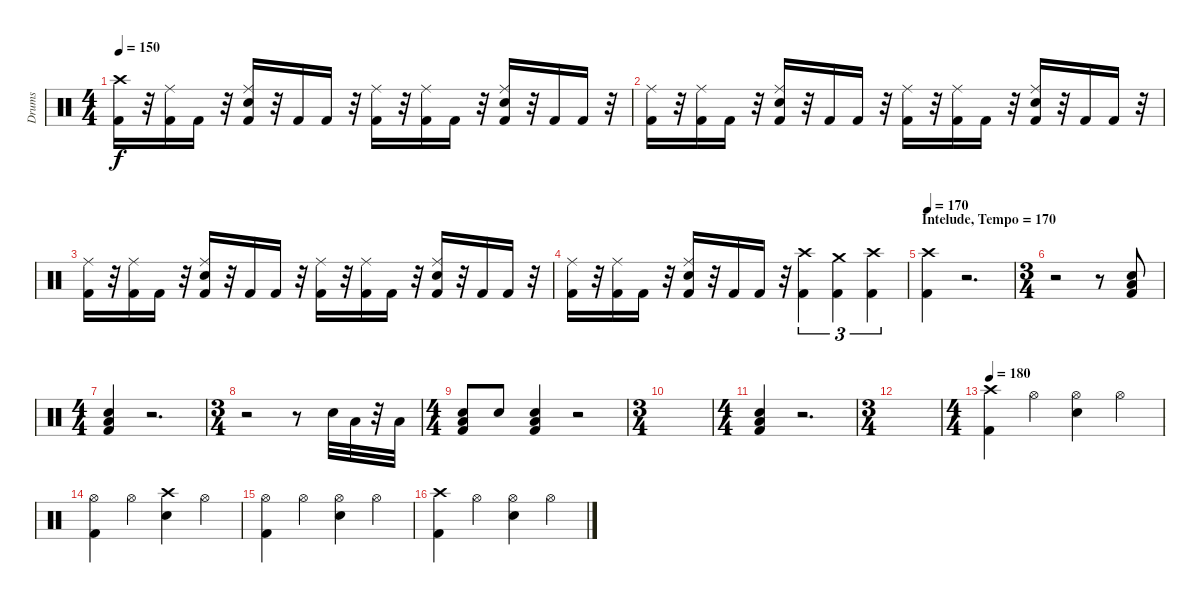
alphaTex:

\track ("Drums" "Drums") {instrument percussion}
\staff {score}
\articulation defaults
\ts (4 4)
\tempo 150
\clef neutral
\ks c
("Crash high (hit)" "Kick (hit) 2").16{dy f} r.32 ("Ride (middle)" "Kick (hit) 2").16 "Kick (hit) 2".16 r.32 ("Ride (middle)" "Electric Snare (hit)" "Kick (hit) 2").16 r.32 "Kick (hit) 2".16 "Kick (hit) 2".16 r.32 ("Ride (middle)" "Kick (hit) 2").16 r.32 ("Ride (middle)" "Kick (hit) 2").16 "Kick (hit) 2".16 r.32 ("Ride (middle)" "Electric Snare (hit)" "Kick (hit) 2").16 r.32 "Kick (hit) 2".16 "Kick (hit) 2".16 r.32 |
("Ride (middle)" "Kick (hit) 2").16 r.32 ("Ride (middle)" "Kick (hit) 2").16 "Kick (hit) 2".16 r.32 ("Ride (middle)" "Electric Snare (hit)" "Kick (hit) 2").16 r.32 "Kick (hit) 2".16 "Kick (hit) 2".16 r.32 ("Ride (middle)" "Kick (hit) 2").16 r.32 ("Ride (middle)" "Kick (hit) 2").16 "Kick (hit) 2".16 r.32 ("Ride (middle)" "Electric Snare (hit)" "Kick (hit) 2").16 r.32 "Kick (hit) 2".16 "Kick (hit) 2".16 r.32 |
("Ride (middle)" "Kick (hit) 2").16 r.32 ("Ride (middle)" "Kick (hit) 2").16 "Kick (hit) 2".16 r.32 ("Ride (middle)" "Electric Snare (hit)" "Kick (hit) 2").16 r.32 "Kick (hit) 2".16 "Kick (hit) 2".16 r.32 ("Ride (middle)" "Kick (hit) 2").16 r.32 ("Ride (middle)" "Kick (hit) 2").16 "Kick (hit) 2".16 r.32 ("Ride (middle)" "Electric Snare (hit)" "Kick (hit) 2").16 r.32 "Kick (hit) 2".16 "Kick (hit) 2".16 r.32 |
("Ride (middle)" "Kick (hit) 2").16 r.32 ("Ride (middle)" "Kick (hit) 2").16 "Kick (hit) 2".16 r.32 ("Ride (middle)" "Electric Snare (hit)" "Kick (hit) 2").16 r.32 "Kick (hit) 2".16 "Kick (hit) 2".16 r.32 ("Crash high (hit)" "Kick (hit) 2").4{tu (3 2)} ("Crash medium (hit)" "Kick (hit) 2").4{tu (3 2)} ("Crash high (hit)" "Kick (hit) 2").4{tu (3 2)} |
\section ("" "Intelude, Tempo = 170")
\tempo 170
("Crash high (hit)" "Kick (hit) 2").4 r.2{d} |
\ts (3 4)
r.2 r.8 ("Low Floor Tom (hit)" "Electric Snare (hit)" "Kick (hit) 2").8 |
\ts (4 4)
("Low Floor Tom (hit)" "Electric Snare (hit)" "Kick (hit) 2").4 r.2{d} |
\ts (3 4)
r.2 r.8 "Electric Snare (hit)".32 "Low Tom (hit)".32 r.32 "Low Floor Tom (hit)".32 |
\ts (4 4)
("Low Floor Tom (hit)" "Electric Snare (hit)" "Kick (hit) 2").8 "Electric Snare (hit)".8 ("Low Floor Tom (hit)" "Electric Snare (hit)" "Kick (hit) 2").4 r.2 |
\ts (3 4)
|
\ts (4 4)
("Low Floor Tom (hit)" "Electric Snare (hit)" "Kick (hit) 2").4 r.2{d} |
\ts (3 4)
|
\ts (4 4)
\tempo 180
("Crash high (hit)" "Kick (hit) 2").4 "Hi-Hat (open)".4 ("Hi-Hat (open)" "Electric Snare (hit)").4 "Hi-Hat (open)".4 |
("Hi-Hat (open)" "Kick (hit) 2").4 "Hi-Hat (open)".4 ("Crash high (hit)" "Electric Snare (hit)").4 "Hi-Hat (open)".4 |
("Hi-Hat (open)" "Kick (hit) 2").4 "Hi-Hat (open)".4 ("Hi-Hat (open)" "Electric Snare (hit)").4 "Hi-Hat (open)".4 |
("Crash high (hit)" "Kick (hit) 2").4 "Hi-Hat (open)".4 ("Hi-Hat (open)" "Electric Snare (hit)").4 "Hi-Hat (open)".4
